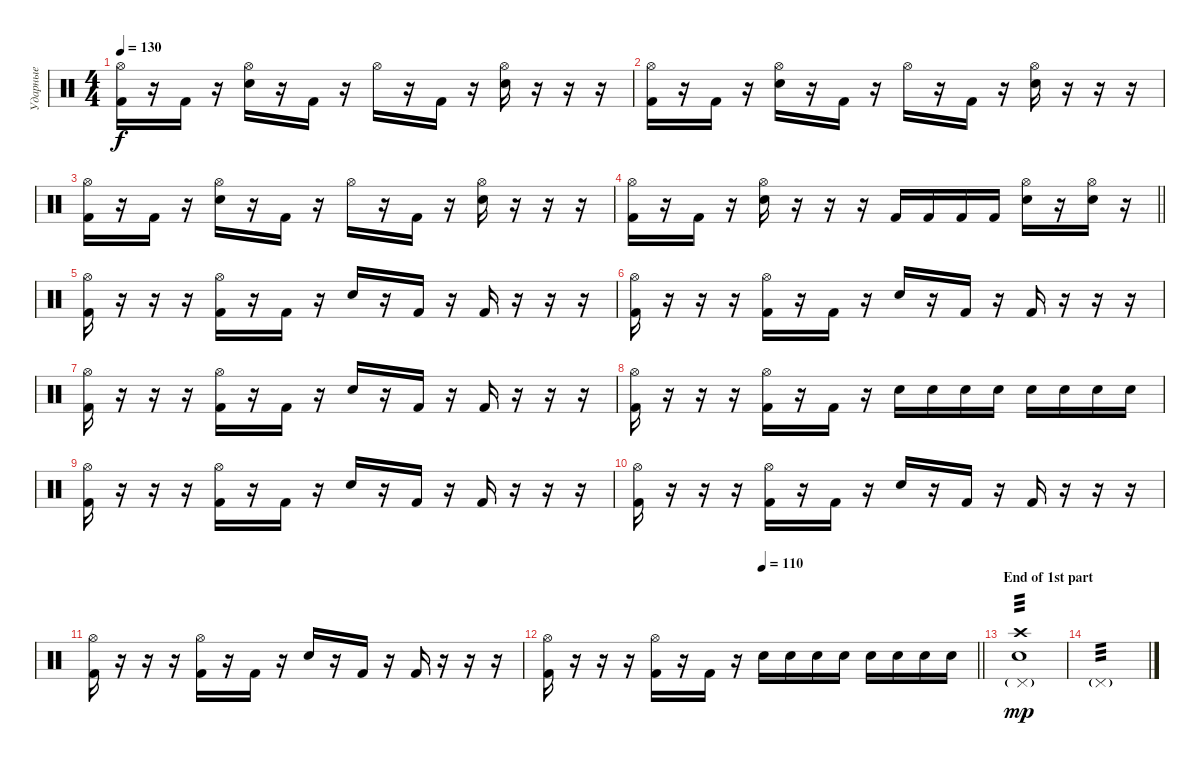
\track ("Ударные" "Ударные") {instrument percussion}
\staff {score}
\articulation defaults
\ts (4 4)
\tempo 130
\clef neutral
\ks c
("Kick (hit) 2" "Hi-Hat (open)").16{dy f} r.16 "Kick (hit) 2".16 r.16 ("Electric Snare (hit)" "Hi-Hat (open)").16 r.16 "Kick (hit) 2".16 r.16 "Hi-Hat (open)".16 r.16 "Kick (hit) 2".16 r.16 ("Electric Snare (hit)" "Hi-Hat (open)").16 r.16 r.16 r.16 |
("Kick (hit) 2" "Hi-Hat (open)").16 r.16 "Kick (hit) 2".16 r.16 ("Electric Snare (hit)" "Hi-Hat (open)").16 r.16 "Kick (hit) 2".16 r.16 "Hi-Hat (open)".16 r.16 "Kick (hit) 2".16 r.16 ("Electric Snare (hit)" "Hi-Hat (open)").16 r.16 r.16 r.16 |
("Kick (hit) 2" "Hi-Hat (open)").16 r.16 "Kick (hit) 2".16 r.16 ("Electric Snare (hit)" "Hi-Hat (open)").16 r.16 "Kick (hit) 2".16 r.16 "Hi-Hat (open)".16 r.16 "Kick (hit) 2".16 r.16 ("Electric Snare (hit)" "Hi-Hat (open)").16 r.16 r.16 r.16 |
\barLineRight lightlight
("Kick (hit) 2" "Hi-Hat (open)").16 r.16 "Kick (hit) 2".16 r.16 ("Electric Snare (hit)" "Hi-Hat (open)").16 r.16 r.16 r.16 "Kick (hit) 2".16 "Kick (hit) 2".16 "Kick (hit) 2".16 "Kick (hit) 2".16 ("Electric Snare (hit)" "Hi-Hat (open)").16 r.16 ("Electric Snare (hit)" "Hi-Hat (open)").16 r.16 |
("Hi-Hat (open)" "Kick (hit) 2").16 r.16 r.16 r.16 ("Hi-Hat (open)" "Kick (hit) 2").16 r.16 "Kick (hit) 2".16 r.16 "Electric Snare (hit)".16 r.16 "Kick (hit) 2".16 r.16 "Kick (hit) 2".16 r.16 r.16 r.16 |
("Hi-Hat (open)" "Kick (hit) 2").16 r.16 r.16 r.16 ("Hi-Hat (open)" "Kick (hit) 2").16 r.16 "Kick (hit) 2".16 r.16 "Electric Snare (hit)".16 r.16 "Kick (hit) 2".16 r.16 "Kick (hit) 2".16 r.16 r.16 r.16 |
("Hi-Hat (open)" "Kick (hit) 2").16 r.16 r.16 r.16 ("Hi-Hat (open)" "Kick (hit) 2").16 r.16 "Kick (hit) 2".16 r.16 "Electric Snare (hit)".16 r.16 "Kick (hit) 2".16 r.16 "Kick (hit) 2".16 r.16 r.16 r.16 |
("Hi-Hat (open)" "Kick (hit) 2").16 r.16 r.16 r.16 ("Hi-Hat (open)" "Kick (hit) 2").16 r.16 "Kick (hit) 2".16 r.16 "Electric Snare (hit)".16 "Electric Snare (hit)".16 "Electric Snare (hit)".16 "Electric Snare (hit)".16 "Snare (hit) 2".16 "Snare (hit) 2".16 "Snare (hit) 2".16 "Snare (hit) 2".16 |
("Hi-Hat (open)" "Kick (hit) 2").16 r.16 r.16 r.16 ("Hi-Hat (open)" "Kick (hit) 2").16 r.16 "Kick (hit) 2".16 r.16 "Electric Snare (hit)".16 r.16 "Kick (hit) 2".16 r.16 "Kick (hit) 2".16 r.16 r.16 r.16 |
("Hi-Hat (open)" "Kick (hit) 2").16 r.16 r.16 r.16 ("Hi-Hat (open)" "Kick (hit) 2").16 r.16 "Kick (hit) 2".16 r.16 "Electric Snare (hit)".16 r.16 "Kick (hit) 2".16 r.16 "Kick (hit) 2".16 r.16 r.16 r.16 |
("Hi-Hat (open)" "Kick (hit) 2").16 r.16 r.16 r.16 ("Hi-Hat (open)" "Kick (hit) 2").16 r.16 "Kick (hit) 2".16 r.16 "Electric Snare (hit)".16 r.16 "Kick (hit) 2".16 r.16 "Kick (hit) 2".16 r.16 r.16 r.16 |
\tempo (110 0.5)
\barLineRight lightlight
("Hi-Hat (open)" "Kick (hit) 2").16 r.16 r.16 r.16 ("Hi-Hat (open)" "Kick (hit) 2").16 r.16 "Kick (hit) 2".16 r.16 "Electric Snare (hit)".16 "Electric Snare (hit)".16 "Electric Snare (hit)".16 "Electric Snare (hit)".16 "Snare (hit) 2".16 "Snare (hit) 2".16 "Snare (hit) 2".16 "Snare (hit) 2".16 |
\section ("" "End of 1st part ")
("Crash high (hit)" "Electric Snare (hit)" "Pedal Hi-Hat (hit)"{g}).1{tp 3 dy mp} |
"Pedal Hi-Hat (hit)"{g}.1{tp 3}
